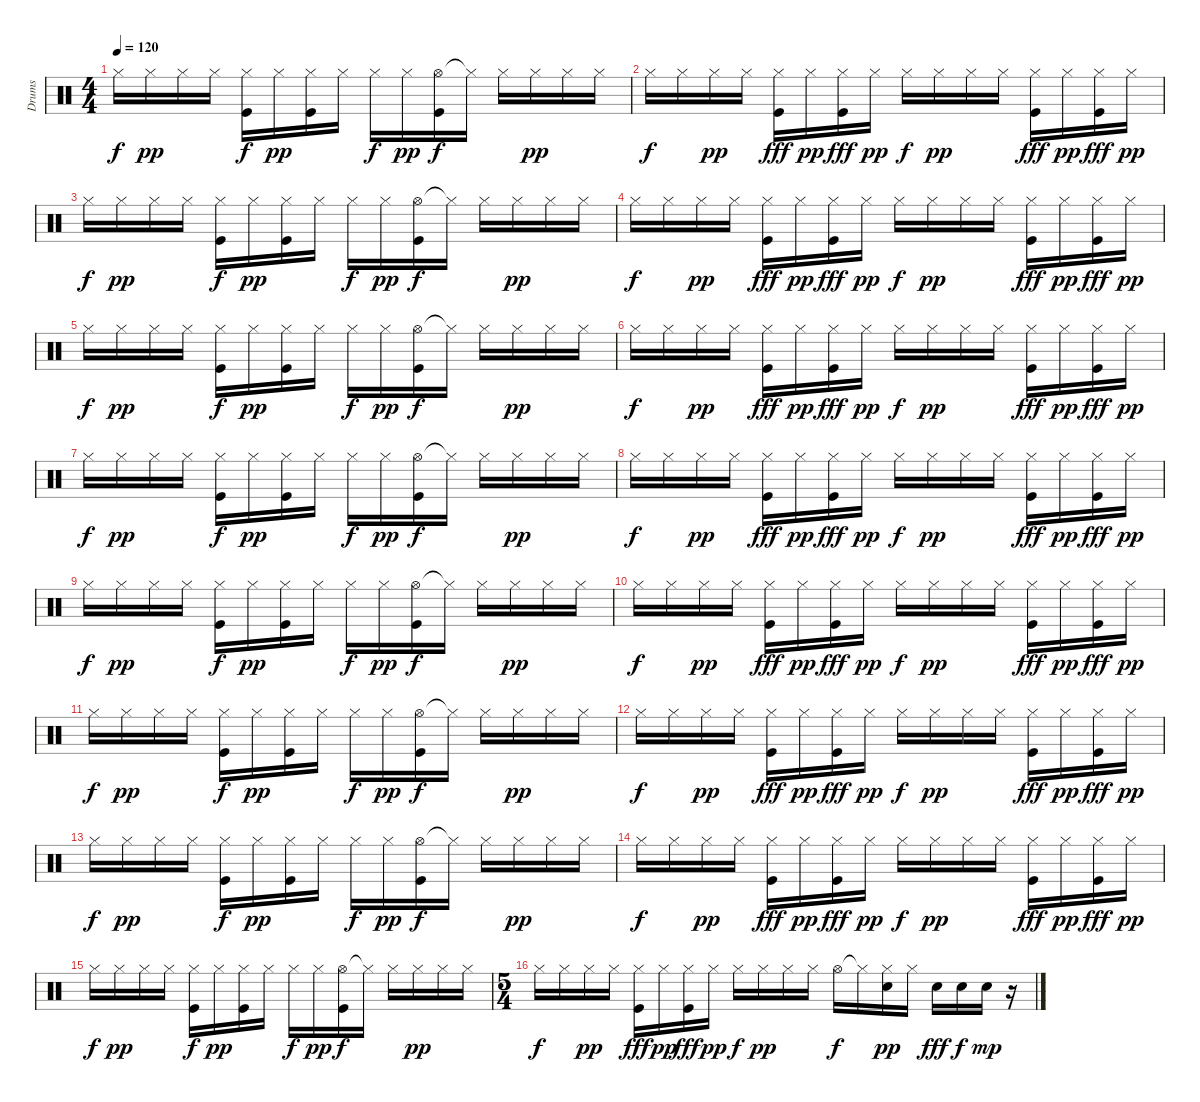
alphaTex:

\track ("Drums" "Drums") {instrument percussion}
\staff {score}
\articulation defaults
\ts (4 4)
\tempo 120
\clef neutral
\ks c "Hi-Hat (closed)".16{dy f} "Hi-Hat (closed)".16{dy pp} "Hi-Hat (closed)".16 "Hi-Hat (closed)".16
("Hi-Hat (closed)" "Kick (hit)").16{dy f} "Hi-Hat (closed)".16{dy pp} ("Hi-Hat (closed)" "Kick (hit)").16 "Hi-Hat (closed)".16 "Hi-Hat (closed)".16{dy f} "Hi-Hat (closed)".16{dy pp} ("Hi-Hat (open)" "Kick (hit)").16{dy f} "Hi-Hat (closed)"{t}.16 "Hi-Hat (closed)".16 "Hi-Hat (closed)".16{dy pp} "Hi-Hat (closed)".16 "Hi-Hat (closed)".16 |
"Hi-Hat (closed)".16{dy f} "Hi-Hat (closed)".16 "Hi-Hat (closed)".16{dy pp} "Hi-Hat (closed)".16 ("Hi-Hat (closed)" "Kick (hit)").16{dy fff} "Hi-Hat (closed)".16{dy pp} ("Hi-Hat (closed)" "Kick (hit)").16{dy fff} "Hi-Hat (closed)".16{dy pp} "Hi-Hat (closed)".16{dy f} "Hi-Hat (closed)".16{dy pp} "Hi-Hat (closed)".16 "Hi-Hat (closed)".16 ("Hi-Hat (closed)" "Kick (hit)").16{dy fff} "Hi-Hat (closed)".16{dy pp} ("Hi-Hat (closed)" "Kick (hit)").16{dy fff} "Hi-Hat (closed)".16{dy pp} |
"Hi-Hat (closed)".16{dy f} "Hi-Hat (closed)".16{dy pp} "Hi-Hat (closed)".16 "Hi-Hat (closed)".16 ("Hi-Hat (closed)" "Kick (hit)").16{dy f} "Hi-Hat (closed)".16{dy pp} ("Hi-Hat (closed)" "Kick (hit)").16 "Hi-Hat (closed)".16 "Hi-Hat (closed)".16{dy f} "Hi-Hat (closed)".16{dy pp} ("Hi-Hat (open)" "Kick (hit)").16{dy f} "Hi-Hat (closed)"{t}.16 "Hi-Hat (closed)".16 "Hi-Hat (closed)".16{dy pp} "Hi-Hat (closed)".16 "Hi-Hat (closed)".16 |
"Hi-Hat (closed)".16{dy f} "Hi-Hat (closed)".16 "Hi-Hat (closed)".16{dy pp} "Hi-Hat (closed)".16 ("Hi-Hat (closed)" "Kick (hit)").16{dy fff} "Hi-Hat (closed)".16{dy pp} ("Hi-Hat (closed)" "Kick (hit)").16{dy fff} "Hi-Hat (closed)".16{dy pp} "Hi-Hat (closed)".16{dy f} "Hi-Hat (closed)".16{dy pp} "Hi-Hat (closed)".16 "Hi-Hat (closed)".16 ("Hi-Hat (closed)" "Kick (hit)").16{dy fff} "Hi-Hat (closed)".16{dy pp} ("Hi-Hat (closed)" "Kick (hit)").16{dy fff} "Hi-Hat (closed)".16{dy pp} |
"Hi-Hat (closed)".16{dy f} "Hi-Hat (closed)".16{dy pp} "Hi-Hat (closed)".16 "Hi-Hat (closed)".16 ("Hi-Hat (closed)" "Kick (hit)").16{dy f} "Hi-Hat (closed)".16{dy pp} ("Hi-Hat (closed)" "Kick (hit)").16 "Hi-Hat (closed)".16 "Hi-Hat (closed)".16{dy f} "Hi-Hat (closed)".16{dy pp} ("Hi-Hat (open)" "Kick (hit)").16{dy f} "Hi-Hat (closed)"{t}.16 "Hi-Hat (closed)".16 "Hi-Hat (closed)".16{dy pp} "Hi-Hat (closed)".16 "Hi-Hat (closed)".16 |
"Hi-Hat (closed)".16{dy f} "Hi-Hat (closed)".16 "Hi-Hat (closed)".16{dy pp} "Hi-Hat (closed)".16 ("Hi-Hat (closed)" "Kick (hit)").16{dy fff} "Hi-Hat (closed)".16{dy pp} ("Hi-Hat (closed)" "Kick (hit)").16{dy fff} "Hi-Hat (closed)".16{dy pp} "Hi-Hat (closed)".16{dy f} "Hi-Hat (closed)".16{dy pp} "Hi-Hat (closed)".16 "Hi-Hat (closed)".16 ("Hi-Hat (closed)" "Kick (hit)").16{dy fff} "Hi-Hat (closed)".16{dy pp} ("Hi-Hat (closed)" "Kick (hit)").16{dy fff} "Hi-Hat (closed)".16{dy pp} |
"Hi-Hat (closed)".16{dy f} "Hi-Hat (closed)".16{dy pp} "Hi-Hat (closed)".16 "Hi-Hat (closed)".16 ("Hi-Hat (closed)" "Kick (hit)").16{dy f} "Hi-Hat (closed)".16{dy pp} ("Hi-Hat (closed)" "Kick (hit)").16 "Hi-Hat (closed)".16 "Hi-Hat (closed)".16{dy f} "Hi-Hat (closed)".16{dy pp} ("Hi-Hat (open)" "Kick (hit)").16{dy f} "Hi-Hat (closed)"{t}.16 "Hi-Hat (closed)".16 "Hi-Hat (closed)".16{dy pp} "Hi-Hat (closed)".16 "Hi-Hat (closed)".16 |
"Hi-Hat (closed)".16{dy f} "Hi-Hat (closed)".16 "Hi-Hat (closed)".16{dy pp} "Hi-Hat (closed)".16 ("Hi-Hat (closed)" "Kick (hit)").16{dy fff} "Hi-Hat (closed)".16{dy pp} ("Hi-Hat (closed)" "Kick (hit)").16{dy fff} "Hi-Hat (closed)".16{dy pp} "Hi-Hat (closed)".16{dy f} "Hi-Hat (closed)".16{dy pp} "Hi-Hat (closed)".16 "Hi-Hat (closed)".16 ("Hi-Hat (closed)" "Kick (hit)").16{dy fff} "Hi-Hat (closed)".16{dy pp} ("Hi-Hat (closed)" "Kick (hit)").16{dy fff} "Hi-Hat (closed)".16{dy pp} |
"Hi-Hat (closed)".16{dy f} "Hi-Hat (closed)".16{dy pp} "Hi-Hat (closed)".16 "Hi-Hat (closed)".16 ("Hi-Hat (closed)" "Kick (hit)").16{dy f} "Hi-Hat (closed)".16{dy pp} ("Hi-Hat (closed)" "Kick (hit)").16 "Hi-Hat (closed)".16 "Hi-Hat (closed)".16{dy f} "Hi-Hat (closed)".16{dy pp} ("Hi-Hat (open)" "Kick (hit)").16{dy f} "Hi-Hat (closed)"{t}.16 "Hi-Hat (closed)".16 "Hi-Hat (closed)".16{dy pp} "Hi-Hat (closed)".16 "Hi-Hat (closed)".16 |
"Hi-Hat (closed)".16{dy f} "Hi-Hat (closed)".16 "Hi-Hat (closed)".16{dy pp} "Hi-Hat (closed)".16 ("Hi-Hat (closed)" "Kick (hit)").16{dy fff} "Hi-Hat (closed)".16{dy pp} ("Hi-Hat (closed)" "Kick (hit)").16{dy fff} "Hi-Hat (closed)".16{dy pp} "Hi-Hat (closed)".16{dy f} "Hi-Hat (closed)".16{dy pp} "Hi-Hat (closed)".16 "Hi-Hat (closed)".16 ("Hi-Hat (closed)" "Kick (hit)").16{dy fff} "Hi-Hat (closed)".16{dy pp} ("Hi-Hat (closed)" "Kick (hit)").16{dy fff} "Hi-Hat (closed)".16{dy pp} |
"Hi-Hat (closed)".16{dy f} "Hi-Hat (closed)".16{dy pp} "Hi-Hat (closed)".16 "Hi-Hat (closed)".16 ("Hi-Hat (closed)" "Kick (hit)").16{dy f} "Hi-Hat (closed)".16{dy pp} ("Hi-Hat (closed)" "Kick (hit)").16 "Hi-Hat (closed)".16 "Hi-Hat (closed)".16{dy f} "Hi-Hat (closed)".16{dy pp} ("Hi-Hat (open)" "Kick (hit)").16{dy f} "Hi-Hat (closed)"{t}.16 "Hi-Hat (closed)".16 "Hi-Hat (closed)".16{dy pp} "Hi-Hat (closed)".16 "Hi-Hat (closed)".16 |
"Hi-Hat (closed)".16{dy f} "Hi-Hat (closed)".16 "Hi-Hat (closed)".16{dy pp} "Hi-Hat (closed)".16 ("Hi-Hat (closed)" "Kick (hit)").16{dy fff} "Hi-Hat (closed)".16{dy pp} ("Hi-Hat (closed)" "Kick (hit)").16{dy fff} "Hi-Hat (closed)".16{dy pp} "Hi-Hat (closed)".16{dy f} "Hi-Hat (closed)".16{dy pp} "Hi-Hat (closed)".16 "Hi-Hat (closed)".16 ("Hi-Hat (closed)" "Kick (hit)").16{dy fff} "Hi-Hat (closed)".16{dy pp} ("Hi-Hat (closed)" "Kick (hit)").16{dy fff} "Hi-Hat (closed)".16{dy pp} |
"Hi-Hat (closed)".16{dy f} "Hi-Hat (closed)".16{dy pp} "Hi-Hat (closed)".16 "Hi-Hat (closed)".16 ("Hi-Hat (closed)" "Kick (hit)").16{dy f} "Hi-Hat (closed)".16{dy pp} ("Hi-Hat (closed)" "Kick (hit)").16 "Hi-Hat (closed)".16 "Hi-Hat (closed)".16{dy f} "Hi-Hat (closed)".16{dy pp} ("Hi-Hat (open)" "Kick (hit)").16{dy f} "Hi-Hat (closed)"{t}.16 "Hi-Hat (closed)".16 "Hi-Hat (closed)".16{dy pp} "Hi-Hat (closed)".16 "Hi-Hat (closed)".16 |
"Hi-Hat (closed)".16{dy f} "Hi-Hat (closed)".16 "Hi-Hat (closed)".16{dy pp} "Hi-Hat (closed)".16 ("Hi-Hat (closed)" "Kick (hit)").16{dy fff} "Hi-Hat (closed)".16{dy pp} ("Hi-Hat (closed)" "Kick (hit)").16{dy fff} "Hi-Hat (closed)".16{dy pp} "Hi-Hat (closed)".16{dy f} "Hi-Hat (closed)".16{dy pp} "Hi-Hat (closed)".16 "Hi-Hat (closed)".16 ("Hi-Hat (closed)" "Kick (hit)").16{dy fff} "Hi-Hat (closed)".16{dy pp} ("Hi-Hat (closed)" "Kick (hit)").16{dy fff} "Hi-Hat (closed)".16{dy pp} |
"Hi-Hat (closed)".16{dy f} "Hi-Hat (closed)".16{dy pp} "Hi-Hat (closed)".16 "Hi-Hat (closed)".16 ("Hi-Hat (closed)" "Kick (hit)").16{dy f} "Hi-Hat (closed)".16{dy pp} ("Hi-Hat (closed)" "Kick (hit)").16 "Hi-Hat (closed)".16 "Hi-Hat (closed)".16{dy f} "Hi-Hat (closed)".16{dy pp} ("Hi-Hat (open)" "Kick (hit)").16{dy f} "Hi-Hat (closed)"{t}.16 "Hi-Hat (closed)".16 "Hi-Hat (closed)".16{dy pp} "Hi-Hat (closed)".16 "Hi-Hat (closed)".16 |
\ts (5 4)
"Hi-Hat (closed)".16{dy f} "Hi-Hat (closed)".16 "Hi-Hat (closed)".16{dy pp} "Hi-Hat (closed)".16 ("Hi-Hat (closed)" "Kick (hit)").16{dy fff} "Hi-Hat (closed)".16{dy pp} ("Hi-Hat (closed)" "Kick (hit)").16{dy fff} "Hi-Hat (closed)".16{dy pp} "Hi-Hat (closed)".16{dy f} "Hi-Hat (closed)".16{dy pp} "Hi-Hat (closed)".16 "Hi-Hat (closed)".16 "Hi-Hat (open)".16{dy f} "Hi-Hat (closed)"{t}.16 ("Hi-Hat (closed)" "Electric Snare (hit)").16{dy pp} "Hi-Hat (closed)".16 "Electric Snare (hit)".16{dy fff} "Electric Snare (hit)".16{dy f} "Electric Snare (hit)".16{dy mp} r.16
